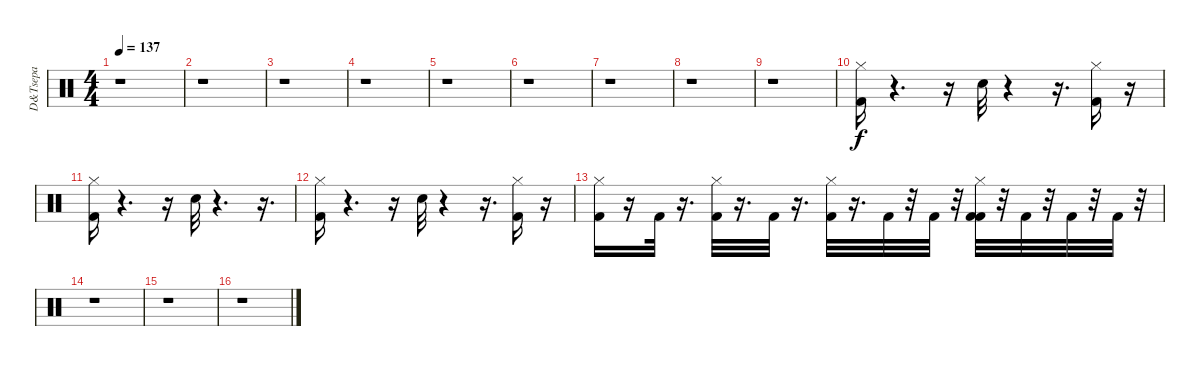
\track ("D&Tsepa" "D&Tsepa") {instrument percussion}
\staff {score}
\articulation defaults
\ts (4 4)
\tempo 137
\clef neutral
\ks c
r.1{dy f} |
r.1 |
r.1 |
r.1 |
r.1 |
r.1 |
r.1 |
r.1 |
r.1 |
("Hi-Hat (closed)" "Kick (hit) 2").16 r.4{d} r.16 "Hand Clap (hit)".32 r.4 r.16{d} ("Kick (hit) 2" "Hi-Hat (closed)").16 r.16 |
("Hi-Hat (closed)" "Kick (hit) 2").16 r.4{d} r.16 "Hand Clap (hit)".32 r.4{d} r.16{d} |
("Hi-Hat (closed)" "Kick (hit) 2").16 r.4{d} r.16 "Hand Clap (hit)".32 r.4 r.16{d} ("Hi-Hat (closed)" "Kick (hit) 2").16 r.16 |
("Hi-Hat (closed)" "Kick (hit) 2").16 r.16 "Kick (hit) 2".32 r.16{d} ("Hi-Hat (closed)" "Kick (hit) 2").32 r.16{d} "Kick (hit) 2".32 r.16{d} ("Hi-Hat (closed)" "Kick (hit) 2").32 r.16{d} "Kick (hit) 2".32 r.32 "Kick (hit) 2".32 r.32 ("Hi-Hat (closed)" "Kick (hit) 2" "Kick (hit) 2").32 r.32 "Kick (hit) 2".32 r.32 "Kick (hit) 2".32 r.32 "Kick (hit) 2".32 r.32 |
r.1 |
r.1 |
r.1
